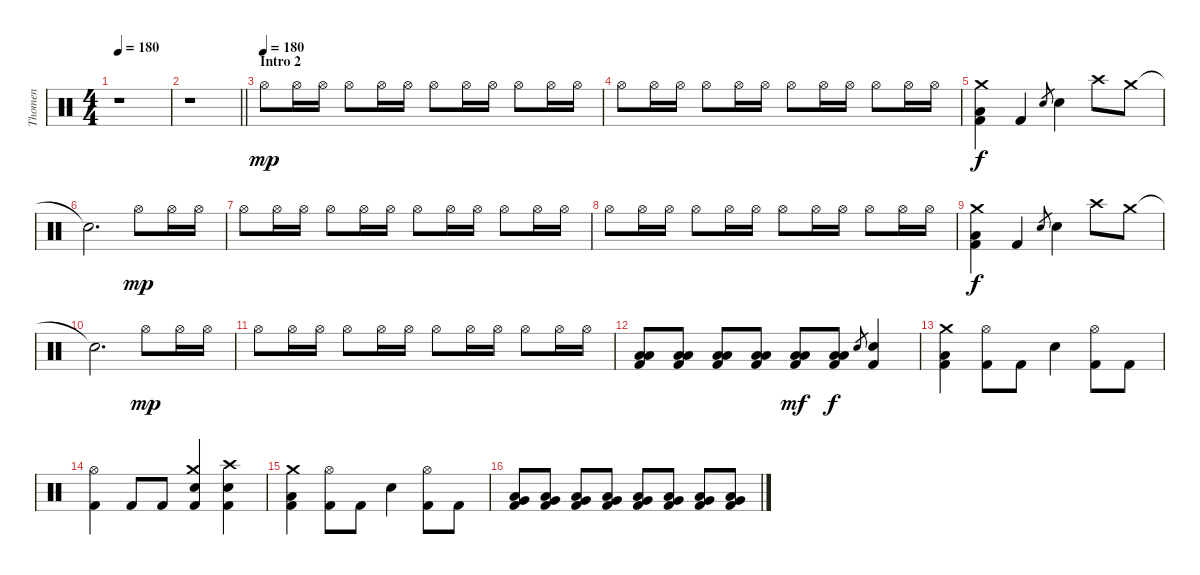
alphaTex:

\track ("Thomen" "Thomen") {instrument percussion}
\staff {score}
\articulation defaults
\ts (4 4)
\tempo 180
\clef neutral
\ks c
r.1{dy mp} |
\barLineRight lightlight
r.1 |
\section ("" "Intro 2")
\tempo (180)
"Hi-Hat (open)".8 "Hi-Hat (open)".16 "Hi-Hat (open)".16 "Hi-Hat (open)".8 "Hi-Hat (open)".16 "Hi-Hat (open)".16 "Hi-Hat (open)".8 "Hi-Hat (open)".16 "Hi-Hat (open)".16 "Hi-Hat (open)".8 "Hi-Hat (open)".16 "Hi-Hat (open)".16 |
"Hi-Hat (open)".8 "Hi-Hat (open)".16 "Hi-Hat (open)".16 "Hi-Hat (open)".8 "Hi-Hat (open)".16 "Hi-Hat (open)".16 "Hi-Hat (open)".8 "Hi-Hat (open)".16 "Hi-Hat (open)".16 "Hi-Hat (open)".8 "Hi-Hat (open)".16 "Hi-Hat (open)".16 |
("Kick (hit) 2" "Low Floor Tom (hit)" "Crash medium (hit)").4{dy f} "Kick (hit) 2".4 "Electric Snare (hit)".8{gr} "Electric Snare (hit)".4 "Crash high (hit)".8 "Crash medium (hit)".8 |
"Snare (hit)"{t}.2{d} "Hi-Hat (open)".8{dy mp} "Hi-Hat (open)".16 "Hi-Hat (open)".16 |
"Hi-Hat (open)".8 "Hi-Hat (open)".16 "Hi-Hat (open)".16 "Hi-Hat (open)".8 "Hi-Hat (open)".16 "Hi-Hat (open)".16 "Hi-Hat (open)".8 "Hi-Hat (open)".16 "Hi-Hat (open)".16 "Hi-Hat (open)".8 "Hi-Hat (open)".16 "Hi-Hat (open)".16 |
"Hi-Hat (open)".8 "Hi-Hat (open)".16 "Hi-Hat (open)".16 "Hi-Hat (open)".8 "Hi-Hat (open)".16 "Hi-Hat (open)".16 "Hi-Hat (open)".8 "Hi-Hat (open)".16 "Hi-Hat (open)".16 "Hi-Hat (open)".8 "Hi-Hat (open)".16 "Hi-Hat (open)".16 |
("Kick (hit) 2" "Low Floor Tom (hit)" "Crash medium (hit)").4{dy f} "Kick (hit) 2".4 "Electric Snare (hit)".8{gr} "Electric Snare (hit)".4 "Crash high (hit)".8 "Crash medium (hit)".8 |
"Snare (hit)"{t}.2{d} "Hi-Hat (open)".8{dy mp} "Hi-Hat (open)".16 "Hi-Hat (open)".16 |
"Hi-Hat (open)".8 "Hi-Hat (open)".16 "Hi-Hat (open)".16 "Hi-Hat (open)".8 "Hi-Hat (open)".16 "Hi-Hat (open)".16 "Hi-Hat (open)".8 "Hi-Hat (open)".16 "Hi-Hat (open)".16 "Hi-Hat (open)".8 "Hi-Hat (open)".16 "Hi-Hat (open)".16 |
("Low Tom (hit)" "Low Floor Tom (hit)" "Kick (hit) 2").8 ("Low Tom (hit)" "Low Floor Tom (hit)" "Kick (hit) 2").8 ("Low Tom (hit)" "Low Floor Tom (hit)" "Kick (hit) 2").8 ("Low Tom (hit)" "Low Floor Tom (hit)" "Kick (hit) 2").8 ("Low Tom (hit)" "Low Floor Tom (hit)" "Kick (hit) 2").8{dy mf} ("Low Tom (hit)" "Low Floor Tom (hit)" "Kick (hit) 2").8{dy f} "Electric Snare (hit)".8{gr} ("Kick (hit) 2" "Electric Snare (hit)").4 |
("Kick (hit) 2" "Low Floor Tom (hit)" "Crash medium (hit)").4 ("Kick (hit) 2" "Hi-Hat (open)").8 "Kick (hit) 2".8 "Electric Snare (hit)".4 ("Kick (hit) 2" "Hi-Hat (open)").8 "Kick (hit) 2".8 |
("Kick (hit) 2" "Hi-Hat (open)").4 "Kick (hit) 2".8 "Kick (hit) 2".8 ("Kick (hit) 2" "Electric Snare (hit)" "Crash medium (hit)").4 ("Kick (hit) 2" "Electric Snare (hit)" "Crash high (hit)").4 |
("Kick (hit) 2" "Low Floor Tom (hit)" "Crash medium (hit)").4 ("Kick (hit) 2" "Hi-Hat (open)").8 "Kick (hit) 2".8 "Electric Snare (hit)".4 ("Kick (hit) 2" "Hi-Hat (open)").8 "Kick (hit) 2".8 |
("Kick (hit) 2" "Low Floor Tom (hit)" "Very Low Tom (hit)").8 ("Kick (hit) 2" "Low Floor Tom (hit)" "Very Low Tom (hit)").8 ("Kick (hit) 2" "Low Floor Tom (hit)" "Very Low Tom (hit)").8 ("Kick (hit) 2" "Low Floor Tom (hit)" "Very Low Tom (hit)").8 ("Kick (hit) 2" "Low Floor Tom (hit)" "Very Low Tom (hit)").8 ("Kick (hit) 2" "Low Floor Tom (hit)" "Very Low Tom (hit)").8 ("Kick (hit) 2" "Low Floor Tom (hit)" "Very Low Tom (hit)").8 ("Kick (hit) 2" "Low Floor Tom (hit)" "Very Low Tom (hit)").8
